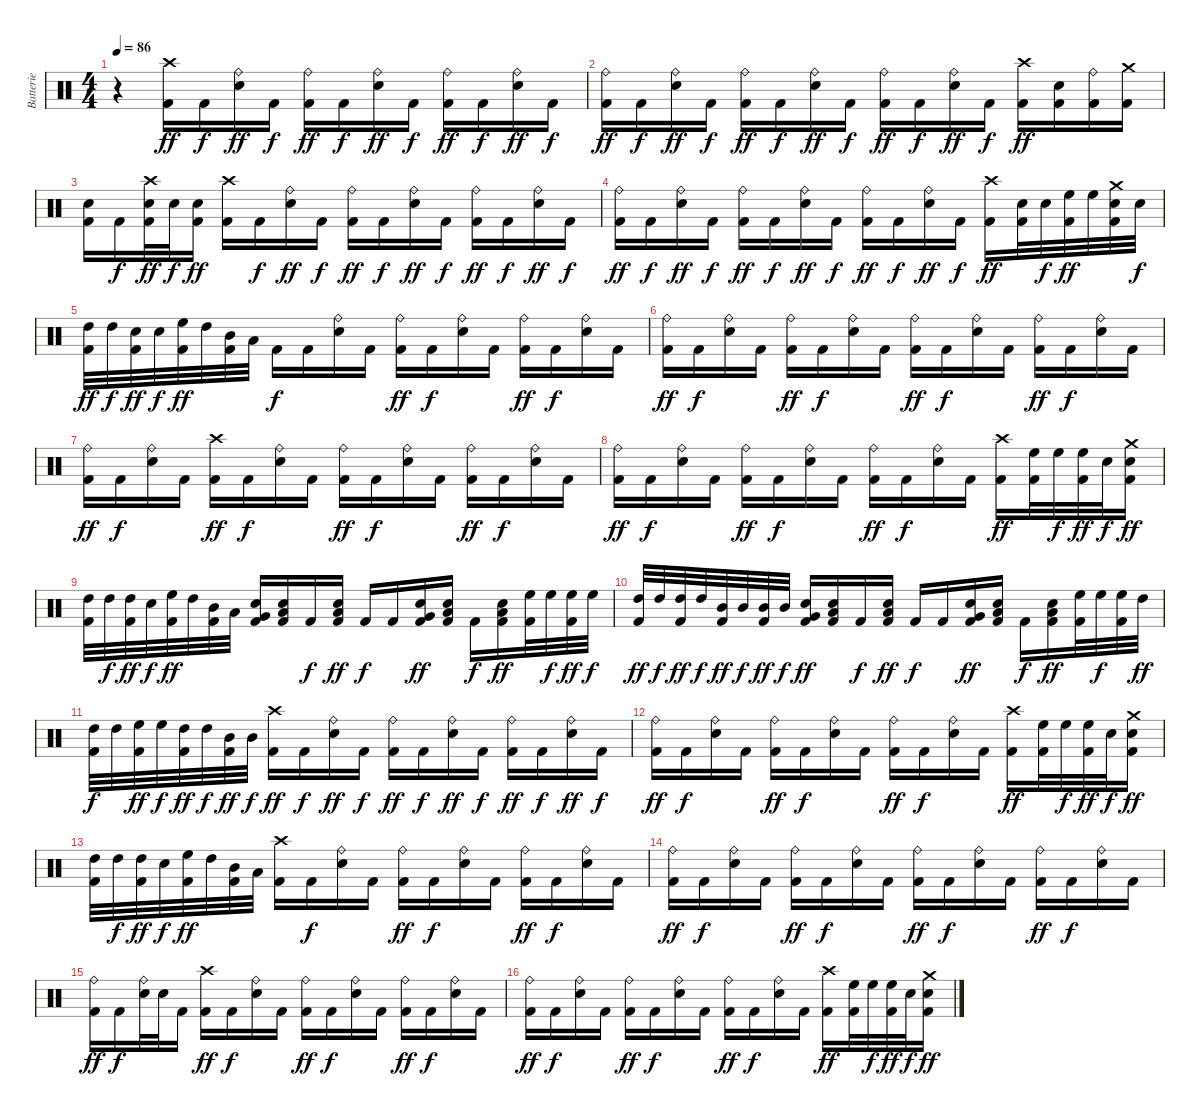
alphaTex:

\track ("Batterie" "Batterie") {instrument percussion}
\staff {score}
\articulation defaults
\ts (4 4)
\tempo 86
\clef neutral
\ks c
r.4{dy ff} ("Crash high (hit)" "Kick (hit) 2").16 "Kick (hit) 2".16{dy f} ("Ride (bell)" "Snare (hit) 2").16{dy ff} "Kick (hit) 2".16{dy f} ("Ride (bell)" "Kick (hit) 2").16{dy ff} "Kick (hit) 2".16{dy f} ("Ride (bell)" "Snare (hit) 2").16{dy ff} "Kick (hit) 2".16{dy f} ("Ride (bell)" "Kick (hit) 2").16{dy ff} "Kick (hit) 2".16{dy f} ("Ride (bell)" "Snare (hit) 2").16{dy ff} "Kick (hit) 2".16{dy f} |
("Ride (bell)" "Kick (hit) 2").16{dy ff} "Kick (hit) 2".16{dy f} ("Ride (bell)" "Snare (hit) 2").16{dy ff} "Kick (hit) 2".16{dy f} ("Ride (bell)" "Kick (hit) 2").16{dy ff} "Kick (hit) 2".16{dy f} ("Ride (bell)" "Snare (hit) 2").16{dy ff} "Kick (hit) 2".16{dy f} ("Ride (bell)" "Kick (hit) 2").16{dy ff} "Kick (hit) 2".16{dy f} ("Ride (bell)" "Snare (hit) 2").16{dy ff} "Kick (hit) 2".16{dy f} ("Crash high (hit)" "Kick (hit) 2").16{dy ff} ("Snare (hit) 2" "Kick (hit) 2").16 ("Ride (bell)" "Kick (hit) 2").16 ("Crash medium (hit)" "Kick (hit) 2").16 |
("Snare (hit) 2" "Kick (hit) 2").16 "Kick (hit) 2".16{dy f} ("Crash high (hit)" "Snare (hit) 2" "Kick (hit) 2").32{dy ff} "Snare (hit) 2".32{dy f} ("Snare (hit) 2" "Kick (hit) 2").16{dy ff} ("Crash high (hit)" "Kick (hit) 2").16 "Kick (hit) 2".16{dy f} ("Ride (bell)" "Snare (hit) 2").16{dy ff} "Kick (hit) 2".16{dy f} ("Ride (bell)" "Kick (hit) 2").16{dy ff} "Kick (hit) 2".16{dy f} ("Ride (bell)" "Snare (hit) 2").16{dy ff} "Kick (hit) 2".16{dy f} ("Ride (bell)" "Kick (hit) 2").16{dy ff} "Kick (hit) 2".16{dy f} ("Ride (bell)" "Snare (hit) 2").16{dy ff} "Kick (hit) 2".16{dy f} |
("Ride (bell)" "Kick (hit) 2").16{dy ff} "Kick (hit) 2".16{dy f} ("Ride (bell)" "Snare (hit) 2").16{dy ff} "Kick (hit) 2".16{dy f} ("Ride (bell)" "Kick (hit) 2").16{dy ff} "Kick (hit) 2".16{dy f} ("Ride (bell)" "Snare (hit) 2").16{dy ff} "Kick (hit) 2".16{dy f} ("Ride (bell)" "Kick (hit) 2").16{dy ff} "Kick (hit) 2".16{dy f} ("Ride (bell)" "Snare (hit) 2").16{dy ff} "Kick (hit) 2".16{dy f} ("Crash high (hit)" "Kick (hit) 2").16{dy ff} ("Snare (hit) 2" "Kick (hit) 2").32 "Snare (hit) 2".32{dy f} ("High Floor Tom (hit)" "Kick (hit) 2").32{dy ff} "High Floor Tom (hit)".32 ("Crash medium (hit)" "Snare (hit) 2" "Kick (hit) 2").32 "Snare (hit) 2".32{dy f} |
("High Tom (hit)" "Kick (hit) 2").32{dy ff} "High Tom (hit)".32{dy f} ("Snare (hit) 2" "Kick (hit) 2").32{dy ff} "Snare (hit) 2".32{dy f} ("High Floor Tom (hit)" "Kick (hit) 2").32{dy ff} "High Tom (hit)".32 ("Mid Tom (hit)" "Kick (hit) 2").32 "Low Tom (hit)".32 "Kick (hit) 2".16{dy f} "Kick (hit) 2".16 ("Ride (bell)" "Snare (hit) 2").16 "Kick (hit) 2".16 ("Ride (bell)" "Kick (hit) 2").16{dy ff} "Kick (hit) 2".16{dy f} ("Ride (bell)" "Snare (hit) 2").16 "Kick (hit) 2".16 ("Ride (bell)" "Kick (hit) 2").16{dy ff} "Kick (hit) 2".16{dy f} ("Ride (bell)" "Snare (hit) 2").16 "Kick (hit) 2".16 |
("Ride (bell)" "Kick (hit) 2").16{dy ff} "Kick (hit) 2".16{dy f} ("Ride (bell)" "Snare (hit) 2").16 "Kick (hit) 2".16 ("Ride (bell)" "Kick (hit) 2").16{dy ff} "Kick (hit) 2".16{dy f} ("Ride (bell)" "Snare (hit) 2").16 "Kick (hit) 2".16 ("Ride (bell)" "Kick (hit) 2").16{dy ff} "Kick (hit) 2".16{dy f} ("Ride (bell)" "Snare (hit) 2").16 "Kick (hit) 2".16 ("Ride (bell)" "Kick (hit) 2").16{dy ff} "Kick (hit) 2".16{dy f} ("Ride (bell)" "Snare (hit) 2").16 "Kick (hit) 2".16 |
("Ride (bell)" "Kick (hit) 2").16{dy ff} "Kick (hit) 2".16{dy f} ("Ride (bell)" "Snare (hit) 2").16 "Kick (hit) 2".16 ("Crash high (hit)" "Kick (hit) 2").16{dy ff} "Kick (hit) 2".16{dy f} ("Ride (bell)" "Snare (hit) 2").16 "Kick (hit) 2".16 ("Ride (bell)" "Kick (hit) 2").16{dy ff} "Kick (hit) 2".16{dy f} ("Ride (bell)" "Snare (hit) 2").16 "Kick (hit) 2".16 ("Ride (bell)" "Kick (hit) 2").16{dy ff} "Kick (hit) 2".16{dy f} ("Ride (bell)" "Snare (hit) 2").16 "Kick (hit) 2".16 |
("Ride (bell)" "Kick (hit) 2").16{dy ff} "Kick (hit) 2".16{dy f} ("Ride (bell)" "Snare (hit) 2").16 "Kick (hit) 2".16 ("Ride (bell)" "Kick (hit) 2").16{dy ff} "Kick (hit) 2".16{dy f} ("Ride (bell)" "Snare (hit) 2").16 "Kick (hit) 2".16 ("Ride (bell)" "Kick (hit) 2").16{dy ff} "Kick (hit) 2".16{dy f} ("Ride (bell)" "Snare (hit) 2").16 "Kick (hit) 2".16 ("Crash high (hit)" "Kick (hit) 2").16{dy ff} ("High Floor Tom (hit)" "Kick (hit) 2").32 "High Floor Tom (hit)".32{dy f} ("High Floor Tom (hit)" "Kick (hit) 2").32{dy ff} "Snare (hit) 2".32{dy f} ("Crash medium (hit)" "Snare (hit) 2" "Kick (hit) 2").16{dy ff} |
("High Tom (hit)" "Kick (hit) 2").32 "High Tom (hit)".32{dy f} ("High Tom (hit)" "Kick (hit) 2").32{dy ff} "Snare (hit) 2".32{dy f} ("High Floor Tom (hit)" "Kick (hit) 2").32{dy ff} "High Tom (hit)".32 ("Mid Tom (hit)" "Kick (hit) 2").32 "Low Tom (hit)".32 ("Very Low Tom (hit)" "Snare (hit) 2" "Kick (hit) 2").16 ("Low Floor Tom (hit)" "Snare (hit) 2" "Kick (hit) 2").16 "Kick (hit) 2".16{dy f} ("Low Floor Tom (hit)" "Snare (hit) 2" "Kick (hit) 2").16{dy ff} "Kick (hit) 2".16{dy f} "Kick (hit) 2".16 ("Very Low Tom (hit)" "Snare (hit) 2" "Kick (hit) 2").16{dy ff} ("Low Floor Tom (hit)" "Snare (hit) 2" "Kick (hit) 2").16 "Kick (hit) 2".16{dy f} ("Low Floor Tom (hit)" "Snare (hit) 2" "Kick (hit) 2").16{dy ff} ("High Floor Tom (hit)" "Kick (hit) 2").32 "High Floor Tom (hit)".32{dy f} ("High Floor Tom (hit)" "Kick (hit) 2").32{dy ff} "High Floor Tom (hit)".32{dy f} |
("High Tom (hit)" "Kick (hit) 2").32{dy ff} "High Tom (hit)".32{dy f} ("High Tom (hit)" "Kick (hit) 2").32{dy ff} "High Tom (hit)".32{dy f} ("Mid Tom (hit)" "Kick (hit) 2").32{dy ff} "Mid Tom (hit)".32{dy f} ("Mid Tom (hit)" "Kick (hit) 2").32{dy ff} "Mid Tom (hit)".32{dy f} ("Very Low Tom (hit)" "Snare (hit) 2" "Kick (hit) 2").16{dy ff} ("Low Floor Tom (hit)" "Snare (hit) 2" "Kick (hit) 2").16 "Kick (hit) 2".16{dy f} ("Low Floor Tom (hit)" "Snare (hit) 2" "Kick (hit) 2").16{dy ff} "Kick (hit) 2".16{dy f} "Kick (hit) 2".16 ("Very Low Tom (hit)" "Snare (hit) 2" "Kick (hit) 2").16{dy ff} ("Low Floor Tom (hit)" "Snare (hit) 2" "Kick (hit) 2").16 "Kick (hit) 2".16{dy f} ("Low Floor Tom (hit)" "Snare (hit) 2" "Kick (hit) 2").16{dy ff} ("High Floor Tom (hit)" "Kick (hit) 2").32 "High Floor Tom (hit)".32{dy f} ("High Floor Tom (hit)" "Kick (hit) 2").32 "High Tom (hit)".32{dy ff} |
("High Tom (hit)" "Kick (hit) 2").32{dy f} "High Tom (hit)".32 ("High Floor Tom (hit)" "Kick (hit) 2").32{dy ff} "High Floor Tom (hit)".32{dy f} ("High Tom (hit)" "Kick (hit) 2").32{dy ff} "High Tom (hit)".32{dy f} ("Mid Tom (hit)" "Kick (hit) 2").32{dy ff} "Mid Tom (hit)".32{dy f} ("Crash high (hit)" "Kick (hit) 2").16{dy ff} "Kick (hit) 2".16{dy f} ("Ride (bell)" "Snare (hit) 2").16{dy ff} "Kick (hit) 2".16{dy f} ("Ride (bell)" "Kick (hit) 2").16{dy ff} "Kick (hit) 2".16{dy f} ("Ride (bell)" "Snare (hit) 2").16{dy ff} "Kick (hit) 2".16{dy f} ("Ride (bell)" "Kick (hit) 2").16{dy ff} "Kick (hit) 2".16{dy f} ("Ride (bell)" "Snare (hit) 2").16{dy ff} "Kick (hit) 2".16{dy f} |
("Ride (bell)" "Kick (hit) 2").16{dy ff} "Kick (hit) 2".16{dy f} ("Ride (bell)" "Snare (hit) 2").16 "Kick (hit) 2".16 ("Ride (bell)" "Kick (hit) 2").16{dy ff} "Kick (hit) 2".16{dy f} ("Ride (bell)" "Snare (hit) 2").16 "Kick (hit) 2".16 ("Ride (bell)" "Kick (hit) 2").16{dy ff} "Kick (hit) 2".16{dy f} ("Ride (bell)" "Snare (hit) 2").16 "Kick (hit) 2".16 ("Crash high (hit)" "Kick (hit) 2").16{dy ff} ("High Floor Tom (hit)" "Kick (hit) 2").32 "High Floor Tom (hit)".32{dy f} ("High Floor Tom (hit)" "Kick (hit) 2").32{dy ff} "Snare (hit) 2".32{dy f} ("Crash medium (hit)" "Snare (hit) 2" "Kick (hit) 2").16{dy ff} |
("High Tom (hit)" "Kick (hit) 2").32 "High Tom (hit)".32{dy f} ("High Tom (hit)" "Kick (hit) 2").32{dy ff} "Snare (hit) 2".32{dy f} ("High Floor Tom (hit)" "Kick (hit) 2").32{dy ff} "High Tom (hit)".32 ("Mid Tom (hit)" "Kick (hit) 2").32 "Low Tom (hit)".32 ("Crash high (hit)" "Kick (hit) 2").16 "Kick (hit) 2".16{dy f} ("Ride (bell)" "Snare (hit) 2").16 "Kick (hit) 2".16 ("Ride (bell)" "Kick (hit) 2").16{dy ff} "Kick (hit) 2".16{dy f} ("Ride (bell)" "Snare (hit) 2").16 "Kick (hit) 2".16 ("Ride (bell)" "Kick (hit) 2").16{dy ff} "Kick (hit) 2".16{dy f} ("Ride (bell)" "Snare (hit) 2").16 "Kick (hit) 2".16 |
("Ride (bell)" "Kick (hit) 2").16{dy ff} "Kick (hit) 2".16{dy f} ("Ride (bell)" "Snare (hit) 2").16 "Kick (hit) 2".16 ("Ride (bell)" "Kick (hit) 2").16{dy ff} "Kick (hit) 2".16{dy f} ("Ride (bell)" "Snare (hit) 2").16 "Kick (hit) 2".16 ("Ride (bell)" "Kick (hit) 2").16{dy ff} "Kick (hit) 2".16{dy f} ("Ride (bell)" "Snare (hit) 2").16 "Kick (hit) 2".16 ("Ride (bell)" "Kick (hit) 2").16{dy ff} "Kick (hit) 2".16{dy f} ("Ride (bell)" "Snare (hit) 2").16 "Kick (hit) 2".16 |
("Ride (bell)" "Kick (hit) 2").16{dy ff} "Kick (hit) 2".16{dy f} ("Ride (bell)" "Snare (hit) 2").32 "Snare (hit) 2".32 "Kick (hit) 2".16 ("Crash high (hit)" "Kick (hit) 2").16{dy ff} "Kick (hit) 2".16{dy f} ("Ride (bell)" "Snare (hit) 2").16 "Kick (hit) 2".16 ("Ride (bell)" "Kick (hit) 2").16{dy ff} "Kick (hit) 2".16{dy f} ("Ride (bell)" "Snare (hit) 2").16 "Kick (hit) 2".16 ("Ride (bell)" "Kick (hit) 2").16{dy ff} "Kick (hit) 2".16{dy f} ("Ride (bell)" "Snare (hit) 2").16 "Kick (hit) 2".16 |
("Ride (bell)" "Kick (hit) 2").16{dy ff} "Kick (hit) 2".16{dy f} ("Ride (bell)" "Snare (hit) 2").16 "Kick (hit) 2".16 ("Ride (bell)" "Kick (hit) 2").16{dy ff} "Kick (hit) 2".16{dy f} ("Ride (bell)" "Snare (hit) 2").16 "Kick (hit) 2".16 ("Ride (bell)" "Kick (hit) 2").16{dy ff} "Kick (hit) 2".16{dy f} ("Ride (bell)" "Snare (hit) 2").16 "Kick (hit) 2".16 ("Crash high (hit)" "Kick (hit) 2").16{dy ff} ("High Floor Tom (hit)" "Kick (hit) 2").32 "High Floor Tom (hit)".32{dy f} ("High Floor Tom (hit)" "Kick (hit) 2").32{dy ff} "Snare (hit) 2".32{dy f} ("Crash medium (hit)" "Snare (hit) 2" "Kick (hit) 2").16{dy ff}
